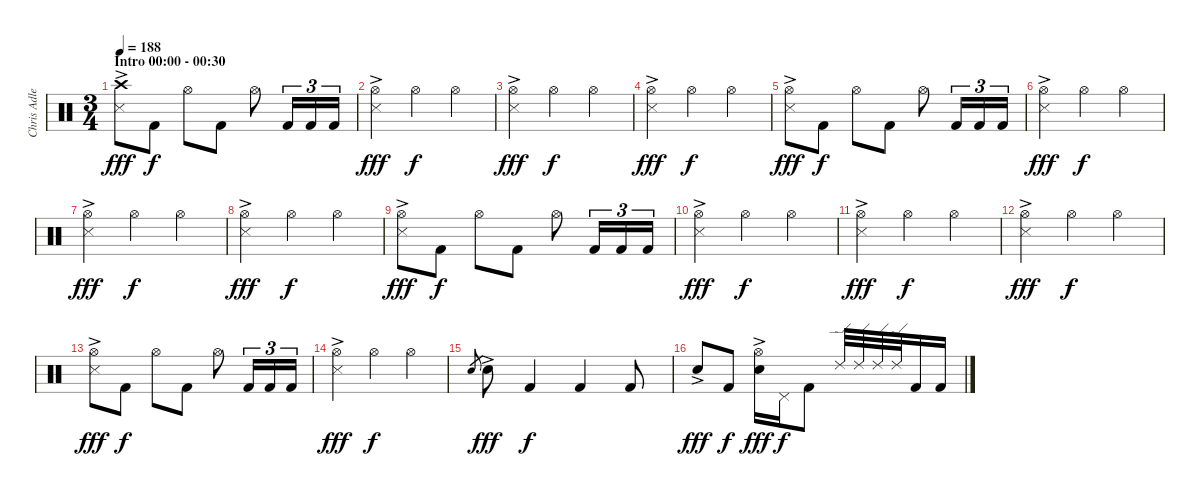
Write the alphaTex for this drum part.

\track ("Chris Adler (Drums)" "Chris Adle") {instrument percussion}
\staff {score}
\articulation defaults
\ts (3 4)
\section ("" "Intro 00:00 - 00:30")
\tempo 188
\clef neutral
\ks c
("Crash high (hit)" "Snare (side stick) 3"{ac}).8{dy fff} "Kick (hit) 2".8{dy f} "Hi-Hat (open)".8 "Kick (hit) 2".8 "Hi-Hat (open)".8 "Kick (hit) 2".16{tu (3 2)} "Kick (hit) 2".16{tu (3 2)} "Kick (hit) 2".16{tu (3 2)} |
("Hi-Hat (open)" "Snare (side stick) 3"{ac}).4{dy fff} "Hi-Hat (open)".4{dy f} "Hi-Hat (open)".4 |
("Hi-Hat (open)" "Snare (side stick) 3"{ac}).4{dy fff} "Hi-Hat (open)".4{dy f} "Hi-Hat (open)".4 |
("Hi-Hat (open)" "Snare (side stick) 3"{ac}).4{dy fff} "Hi-Hat (open)".4{dy f} "Hi-Hat (open)".4 |
("Hi-Hat (open)" "Snare (side stick) 3"{ac}).8{dy fff} "Kick (hit) 2".8{dy f} "Hi-Hat (open)".8 "Kick (hit) 2".8 "Hi-Hat (open)".8 "Kick (hit) 2".16{tu (3 2)} "Kick (hit) 2".16{tu (3 2)} "Kick (hit) 2".16{tu (3 2)} |
("Hi-Hat (open)" "Snare (side stick) 3"{ac}).4{dy fff} "Hi-Hat (open)".4{dy f} "Hi-Hat (open)".4 |
("Hi-Hat (open)" "Snare (side stick) 3"{ac}).4{dy fff} "Hi-Hat (open)".4{dy f} "Hi-Hat (open)".4 |
("Hi-Hat (open)" "Snare (side stick) 3"{ac}).4{dy fff} "Hi-Hat (open)".4{dy f} "Hi-Hat (open)".4 |
("Hi-Hat (open)" "Snare (side stick) 3"{ac}).8{dy fff} "Kick (hit) 2".8{dy f} "Hi-Hat (open)".8 "Kick (hit) 2".8 "Hi-Hat (open)".8 "Kick (hit) 2".16{tu (3 2)} "Kick (hit) 2".16{tu (3 2)} "Kick (hit) 2".16{tu (3 2)} |
("Hi-Hat (open)" "Snare (side stick) 3"{ac}).4{dy fff} "Hi-Hat (open)".4{dy f} "Hi-Hat (open)".4 |
("Hi-Hat (open)" "Snare (side stick) 3"{ac}).4{dy fff} "Hi-Hat (open)".4{dy f} "Hi-Hat (open)".4 |
("Hi-Hat (open)" "Snare (side stick) 3"{ac}).4{dy fff} "Hi-Hat (open)".4{dy f} "Hi-Hat (open)".4 |
("Hi-Hat (open)" "Snare (side stick) 3"{ac}).8{dy fff} "Kick (hit) 2".8{dy f} "Hi-Hat (open)".8 "Kick (hit) 2".8 "Hi-Hat (open)".8 "Kick (hit) 2".16{tu (3 2)} "Kick (hit) 2".16{tu (3 2)} "Kick (hit) 2".16{tu (3 2)} |
("Hi-Hat (open)" "Snare (side stick) 3"{ac}).4{dy fff} "Hi-Hat (open)".4{dy f} "Hi-Hat (open)".4 |
"Snare (hit) 2".8{gr} "Electric Snare (hit)"{ac}.8{dy fff} "Kick (hit) 2".4{dy f} "Kick (hit) 2".4 "Kick (hit) 2".8 |
"Electric Snare (hit)"{ac}.8{dy fff} "Kick (hit) 2".8{dy f} ("Hi-Hat (open)" "Electric Snare (hit)"{ac}).16{dy fff} "Pedal Hi-Hat (hit)".16{dy f} "Kick (hit) 2".8 "Ride (edge) 2".32 "Ride (edge) 2".32 "Ride (edge) 2".32 "Ride (edge) 2".32 "Kick (hit) 2".16 "Kick (hit) 2".16
